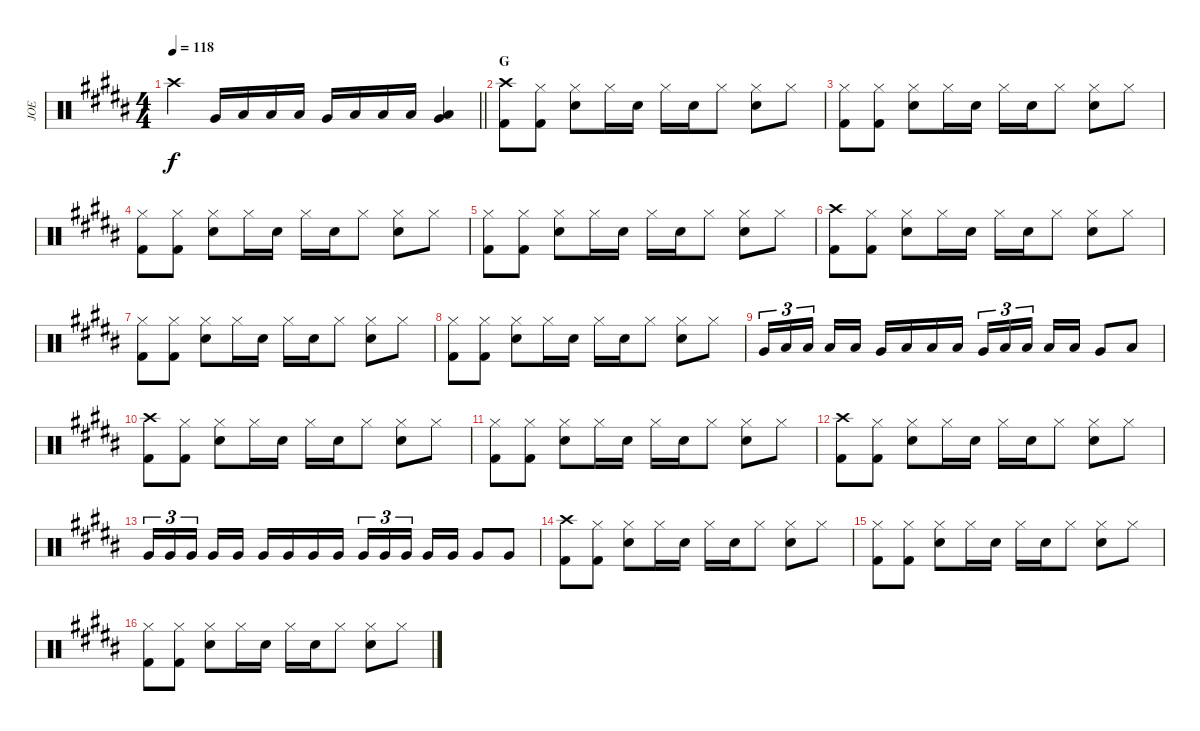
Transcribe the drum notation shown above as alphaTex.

\track ("JOE" "JOE") {instrument percussion}
\staff {score}
\articulation defaults
\ts (4 4)
\tempo 118
\clef neutral
\barLineRight lightlight
\ks b "Crash high (hit)"{t}.4{dy f} "Very Low Tom (hit)".16 "Low Floor Tom (hit)".16 "Low Floor Tom (hit)".16 "Low Floor Tom (hit)".16 "Very Low Tom (hit)".16 "Low Floor Tom (hit)".16 "Low Floor Tom (hit)".16 "Low Floor Tom (hit)".16
("Very Low Tom (hit)" "Low Floor Tom (hit)").4 |
\section ("" "G")
("Crash high (hit)" "Kick (hit) 2").8 ("Hi-Hat (closed)" "Kick (hit) 2").8 ("Hi-Hat (closed)" "Snare (hit) 2").8 "Hi-Hat (closed)".16 "Snare (hit) 2".16 "Hi-Hat (closed)".16 "Snare (hit) 2".16 "Hi-Hat (closed)".8 ("Hi-Hat (closed)" "Snare (hit) 2").8 "Hi-Hat (closed)".8 |
("Hi-Hat (closed)" "Kick (hit) 2").8 ("Hi-Hat (closed)" "Kick (hit) 2").8 ("Hi-Hat (closed)" "Snare (hit) 2").8 "Hi-Hat (closed)".16 "Snare (hit) 2".16 "Hi-Hat (closed)".16 "Snare (hit) 2".16 "Hi-Hat (closed)".8 ("Hi-Hat (closed)" "Snare (hit) 2").8 "Hi-Hat (closed)".8 |
("Hi-Hat (closed)" "Kick (hit) 2").8 ("Hi-Hat (closed)" "Kick (hit) 2").8 ("Hi-Hat (closed)" "Snare (hit) 2").8 "Hi-Hat (closed)".16 "Snare (hit) 2".16 "Hi-Hat (closed)".16 "Snare (hit) 2".16 "Hi-Hat (closed)".8 ("Hi-Hat (closed)" "Snare (hit) 2").8 "Hi-Hat (closed)".8 |
("Hi-Hat (closed)" "Kick (hit) 2").8 ("Hi-Hat (closed)" "Kick (hit) 2").8 ("Hi-Hat (closed)" "Snare (hit) 2").8 "Hi-Hat (closed)".16 "Snare (hit) 2".16 "Hi-Hat (closed)".16 "Snare (hit) 2".16 "Hi-Hat (closed)".8 ("Hi-Hat (closed)" "Snare (hit) 2").8 "Hi-Hat (closed)".8 |
("Crash high (hit)" "Kick (hit) 2").8 ("Hi-Hat (closed)" "Kick (hit) 2").8 ("Hi-Hat (closed)" "Snare (hit) 2").8 "Hi-Hat (closed)".16 "Snare (hit) 2".16 "Hi-Hat (closed)".16 "Snare (hit) 2".16 "Hi-Hat (closed)".8 ("Hi-Hat (closed)" "Snare (hit) 2").8 "Hi-Hat (closed)".8 |
("Hi-Hat (closed)" "Kick (hit) 2").8 ("Hi-Hat (closed)" "Kick (hit) 2").8 ("Hi-Hat (closed)" "Snare (hit) 2").8 "Hi-Hat (closed)".16 "Snare (hit) 2".16 "Hi-Hat (closed)".16 "Snare (hit) 2".16 "Hi-Hat (closed)".8 ("Hi-Hat (closed)" "Snare (hit) 2").8 "Hi-Hat (closed)".8 |
("Hi-Hat (closed)" "Kick (hit) 2").8 ("Hi-Hat (closed)" "Kick (hit) 2").8 ("Hi-Hat (closed)" "Snare (hit) 2").8 "Hi-Hat (closed)".16 "Snare (hit) 2".16 "Hi-Hat (closed)".16 "Snare (hit) 2".16 "Hi-Hat (closed)".8 ("Hi-Hat (closed)" "Snare (hit) 2").8 "Hi-Hat (closed)".8 |
"Very Low Tom (hit)".16{tu (3 2)} "Low Floor Tom (hit)".16{tu (3 2)} "Low Floor Tom (hit)".16{tu (3 2)} "Low Floor Tom (hit)".16 "Low Floor Tom (hit)".16 "Very Low Tom (hit)".16 "Low Floor Tom (hit)".16 "Low Floor Tom (hit)".16 "Low Floor Tom (hit)".16 "Very Low Tom (hit)".16{tu (3 2)} "Low Floor Tom (hit)".16{tu (3 2)} "Low Floor Tom (hit)".16{tu (3 2)} "Low Floor Tom (hit)".16 "Low Floor Tom (hit)".16 "Very Low Tom (hit)".8 "Low Floor Tom (hit)".8 |
("Crash high (hit)" "Kick (hit) 2").8 ("Hi-Hat (closed)" "Kick (hit) 2").8 ("Hi-Hat (closed)" "Snare (hit) 2").8 "Hi-Hat (closed)".16 "Snare (hit) 2".16 "Hi-Hat (closed)".16 "Snare (hit) 2".16 "Hi-Hat (closed)".8 ("Hi-Hat (closed)" "Snare (hit) 2").8 "Hi-Hat (closed)".8 |
("Hi-Hat (closed)" "Kick (hit) 2").8 ("Hi-Hat (closed)" "Kick (hit) 2").8 ("Hi-Hat (closed)" "Snare (hit) 2").8 "Hi-Hat (closed)".16 "Snare (hit) 2".16 "Hi-Hat (closed)".16 "Snare (hit) 2".16 "Hi-Hat (closed)".8 ("Hi-Hat (closed)" "Snare (hit) 2").8 "Hi-Hat (closed)".8 |
("Crash high (hit)" "Kick (hit) 2").8 ("Hi-Hat (closed)" "Kick (hit) 2").8 ("Hi-Hat (closed)" "Snare (hit) 2").8 "Hi-Hat (closed)".16 "Snare (hit) 2".16 "Hi-Hat (closed)".16 "Snare (hit) 2".16 "Hi-Hat (closed)".8 ("Hi-Hat (closed)" "Snare (hit) 2").8 "Hi-Hat (closed)".8 |
"Very Low Tom (hit)".16{tu (3 2)} "Very Low Tom (hit)".16{tu (3 2)} "Very Low Tom (hit)".16{tu (3 2)} "Very Low Tom (hit)".16 "Very Low Tom (hit)".16 "Very Low Tom (hit)".16 "Very Low Tom (hit)".16 "Very Low Tom (hit)".16 "Very Low Tom (hit)".16 "Very Low Tom (hit)".16{tu (3 2)} "Very Low Tom (hit)".16{tu (3 2)} "Very Low Tom (hit)".16{tu (3 2)} "Very Low Tom (hit)".16 "Very Low Tom (hit)".16 "Very Low Tom (hit)".8 "Very Low Tom (hit)".8 |
("Crash high (hit)" "Kick (hit) 2").8 ("Hi-Hat (closed)" "Kick (hit) 2").8 ("Hi-Hat (closed)" "Snare (hit) 2").8 "Hi-Hat (closed)".16 "Snare (hit) 2".16 "Hi-Hat (closed)".16 "Snare (hit) 2".16 "Hi-Hat (closed)".8 ("Hi-Hat (closed)" "Snare (hit) 2").8 "Hi-Hat (closed)".8 |
("Hi-Hat (closed)" "Kick (hit) 2").8 ("Hi-Hat (closed)" "Kick (hit) 2").8 ("Hi-Hat (closed)" "Snare (hit) 2").8 "Hi-Hat (closed)".16 "Snare (hit) 2".16 "Hi-Hat (closed)".16 "Snare (hit) 2".16 "Hi-Hat (closed)".8 ("Hi-Hat (closed)" "Snare (hit) 2").8 "Hi-Hat (closed)".8 |
("Hi-Hat (closed)" "Kick (hit) 2").8 ("Hi-Hat (closed)" "Kick (hit) 2").8 ("Hi-Hat (closed)" "Snare (hit) 2").8 "Hi-Hat (closed)".16 "Snare (hit) 2".16 "Hi-Hat (closed)".16 "Snare (hit) 2".16 "Hi-Hat (closed)".8 ("Hi-Hat (closed)" "Snare (hit) 2").8 "Hi-Hat (closed)".8
